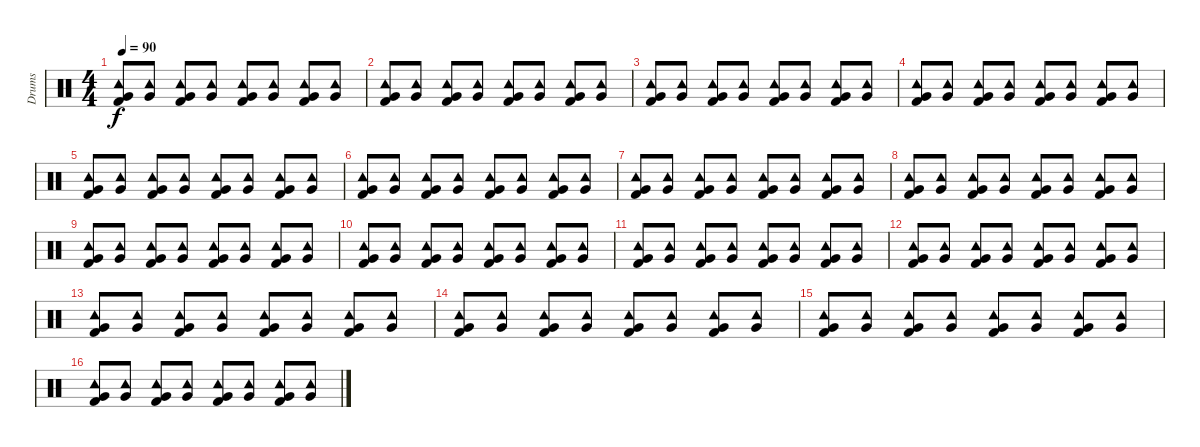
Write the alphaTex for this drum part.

\track ("Drums" "Drums") {instrument percussion}
\staff {score}
\articulation defaults
\ts (4 4)
\tempo 90
\clef neutral
\ks c
("Tambourine (hit)" "Kick (hit) 2" "Very Low Tom (hit)").8{dy f} ("Tambourine (hit)" "Very Low Tom (hit)").8 ("Tambourine (hit)" "Kick (hit) 2" "Very Low Tom (hit)").8 ("Tambourine (hit)" "Very Low Tom (hit)").8 ("Tambourine (hit)" "Kick (hit) 2" "Very Low Tom (hit)").8 ("Tambourine (hit)" "Very Low Tom (hit)").8 ("Tambourine (hit)" "Kick (hit) 2" "Very Low Tom (hit)").8 ("Tambourine (hit)" "Very Low Tom (hit)").8 |
("Tambourine (hit)" "Kick (hit) 2" "Very Low Tom (hit)").8 ("Tambourine (hit)" "Very Low Tom (hit)").8 ("Tambourine (hit)" "Kick (hit) 2" "Very Low Tom (hit)").8 ("Tambourine (hit)" "Very Low Tom (hit)").8 ("Tambourine (hit)" "Kick (hit) 2" "Very Low Tom (hit)").8 ("Tambourine (hit)" "Very Low Tom (hit)").8 ("Tambourine (hit)" "Kick (hit) 2" "Very Low Tom (hit)").8 ("Tambourine (hit)" "Very Low Tom (hit)").8 |
("Tambourine (hit)" "Kick (hit) 2" "Very Low Tom (hit)").8 ("Tambourine (hit)" "Very Low Tom (hit)").8 ("Tambourine (hit)" "Kick (hit) 2" "Very Low Tom (hit)").8 ("Tambourine (hit)" "Very Low Tom (hit)").8 ("Tambourine (hit)" "Kick (hit) 2" "Very Low Tom (hit)").8 ("Tambourine (hit)" "Very Low Tom (hit)").8 ("Tambourine (hit)" "Kick (hit) 2" "Very Low Tom (hit)").8 ("Tambourine (hit)" "Very Low Tom (hit)").8 |
("Tambourine (hit)" "Kick (hit) 2" "Very Low Tom (hit)").8 ("Tambourine (hit)" "Very Low Tom (hit)").8 ("Tambourine (hit)" "Kick (hit) 2" "Very Low Tom (hit)").8 ("Tambourine (hit)" "Very Low Tom (hit)").8 ("Tambourine (hit)" "Kick (hit) 2" "Very Low Tom (hit)").8 ("Tambourine (hit)" "Very Low Tom (hit)").8 ("Tambourine (hit)" "Kick (hit) 2" "Very Low Tom (hit)").8 ("Tambourine (hit)" "Very Low Tom (hit)").8 |
("Tambourine (hit)" "Kick (hit) 2" "Very Low Tom (hit)").8 ("Tambourine (hit)" "Very Low Tom (hit)").8 ("Tambourine (hit)" "Kick (hit) 2" "Very Low Tom (hit)").8 ("Tambourine (hit)" "Very Low Tom (hit)").8 ("Tambourine (hit)" "Kick (hit) 2" "Very Low Tom (hit)").8 ("Tambourine (hit)" "Very Low Tom (hit)").8 ("Tambourine (hit)" "Kick (hit) 2" "Very Low Tom (hit)").8 ("Tambourine (hit)" "Very Low Tom (hit)").8 |
("Tambourine (hit)" "Kick (hit) 2" "Very Low Tom (hit)").8 ("Tambourine (hit)" "Very Low Tom (hit)").8 ("Tambourine (hit)" "Kick (hit) 2" "Very Low Tom (hit)").8 ("Tambourine (hit)" "Very Low Tom (hit)").8 ("Tambourine (hit)" "Kick (hit) 2" "Very Low Tom (hit)").8 ("Tambourine (hit)" "Very Low Tom (hit)").8 ("Tambourine (hit)" "Kick (hit) 2" "Very Low Tom (hit)").8 ("Tambourine (hit)" "Very Low Tom (hit)").8 |
("Tambourine (hit)" "Kick (hit) 2" "Very Low Tom (hit)").8 ("Tambourine (hit)" "Very Low Tom (hit)").8 ("Tambourine (hit)" "Kick (hit) 2" "Very Low Tom (hit)").8 ("Tambourine (hit)" "Very Low Tom (hit)").8 ("Tambourine (hit)" "Kick (hit) 2" "Very Low Tom (hit)").8 ("Tambourine (hit)" "Very Low Tom (hit)").8 ("Tambourine (hit)" "Kick (hit) 2" "Very Low Tom (hit)").8 ("Tambourine (hit)" "Very Low Tom (hit)").8 |
("Tambourine (hit)" "Kick (hit) 2" "Very Low Tom (hit)").8 ("Tambourine (hit)" "Very Low Tom (hit)").8 ("Tambourine (hit)" "Kick (hit) 2" "Very Low Tom (hit)").8 ("Tambourine (hit)" "Very Low Tom (hit)").8 ("Tambourine (hit)" "Kick (hit) 2" "Very Low Tom (hit)").8 ("Tambourine (hit)" "Very Low Tom (hit)").8 ("Tambourine (hit)" "Kick (hit) 2" "Very Low Tom (hit)").8 ("Tambourine (hit)" "Very Low Tom (hit)").8 |
("Tambourine (hit)" "Kick (hit) 2" "Very Low Tom (hit)").8 ("Tambourine (hit)" "Very Low Tom (hit)").8 ("Tambourine (hit)" "Kick (hit) 2" "Very Low Tom (hit)").8 ("Tambourine (hit)" "Very Low Tom (hit)").8 ("Tambourine (hit)" "Kick (hit) 2" "Very Low Tom (hit)").8 ("Tambourine (hit)" "Very Low Tom (hit)").8 ("Tambourine (hit)" "Kick (hit) 2" "Very Low Tom (hit)").8 ("Tambourine (hit)" "Very Low Tom (hit)").8 |
("Tambourine (hit)" "Kick (hit) 2" "Very Low Tom (hit)").8 ("Tambourine (hit)" "Very Low Tom (hit)").8 ("Tambourine (hit)" "Kick (hit) 2" "Very Low Tom (hit)").8 ("Tambourine (hit)" "Very Low Tom (hit)").8 ("Tambourine (hit)" "Kick (hit) 2" "Very Low Tom (hit)").8 ("Tambourine (hit)" "Very Low Tom (hit)").8 ("Tambourine (hit)" "Kick (hit) 2" "Very Low Tom (hit)").8 ("Tambourine (hit)" "Very Low Tom (hit)").8 |
("Tambourine (hit)" "Kick (hit) 2" "Very Low Tom (hit)").8 ("Tambourine (hit)" "Very Low Tom (hit)").8 ("Tambourine (hit)" "Kick (hit) 2" "Very Low Tom (hit)").8 ("Tambourine (hit)" "Very Low Tom (hit)").8 ("Tambourine (hit)" "Kick (hit) 2" "Very Low Tom (hit)").8 ("Tambourine (hit)" "Very Low Tom (hit)").8 ("Tambourine (hit)" "Kick (hit) 2" "Very Low Tom (hit)").8 ("Tambourine (hit)" "Very Low Tom (hit)").8 |
("Tambourine (hit)" "Kick (hit) 2" "Very Low Tom (hit)").8 ("Tambourine (hit)" "Very Low Tom (hit)").8 ("Tambourine (hit)" "Kick (hit) 2" "Very Low Tom (hit)").8 ("Tambourine (hit)" "Very Low Tom (hit)").8 ("Tambourine (hit)" "Kick (hit) 2" "Very Low Tom (hit)").8 ("Tambourine (hit)" "Very Low Tom (hit)").8 ("Tambourine (hit)" "Kick (hit) 2" "Very Low Tom (hit)").8 ("Tambourine (hit)" "Very Low Tom (hit)").8 |
("Tambourine (hit)" "Kick (hit) 2" "Very Low Tom (hit)").8 ("Tambourine (hit)" "Very Low Tom (hit)").8 ("Tambourine (hit)" "Kick (hit) 2" "Very Low Tom (hit)").8 ("Tambourine (hit)" "Very Low Tom (hit)").8 ("Tambourine (hit)" "Kick (hit) 2" "Very Low Tom (hit)").8 ("Tambourine (hit)" "Very Low Tom (hit)").8 ("Tambourine (hit)" "Kick (hit) 2" "Very Low Tom (hit)").8 ("Tambourine (hit)" "Very Low Tom (hit)").8 |
("Tambourine (hit)" "Kick (hit) 2" "Very Low Tom (hit)").8 ("Tambourine (hit)" "Very Low Tom (hit)").8 ("Tambourine (hit)" "Kick (hit) 2" "Very Low Tom (hit)").8 ("Tambourine (hit)" "Very Low Tom (hit)").8 ("Tambourine (hit)" "Kick (hit) 2" "Very Low Tom (hit)").8 ("Tambourine (hit)" "Very Low Tom (hit)").8 ("Tambourine (hit)" "Kick (hit) 2" "Very Low Tom (hit)").8 ("Tambourine (hit)" "Very Low Tom (hit)").8 |
("Tambourine (hit)" "Kick (hit) 2" "Very Low Tom (hit)").8 ("Tambourine (hit)" "Very Low Tom (hit)").8 ("Tambourine (hit)" "Kick (hit) 2" "Very Low Tom (hit)").8 ("Tambourine (hit)" "Very Low Tom (hit)").8 ("Tambourine (hit)" "Kick (hit) 2" "Very Low Tom (hit)").8 ("Tambourine (hit)" "Very Low Tom (hit)").8 ("Tambourine (hit)" "Kick (hit) 2" "Very Low Tom (hit)").8 ("Tambourine (hit)" "Very Low Tom (hit)").8 |
("Tambourine (hit)" "Kick (hit) 2" "Very Low Tom (hit)").8 ("Tambourine (hit)" "Very Low Tom (hit)").8 ("Tambourine (hit)" "Kick (hit) 2" "Very Low Tom (hit)").8 ("Tambourine (hit)" "Very Low Tom (hit)").8 ("Tambourine (hit)" "Kick (hit) 2" "Very Low Tom (hit)").8 ("Tambourine (hit)" "Very Low Tom (hit)").8 ("Tambourine (hit)" "Kick (hit) 2" "Very Low Tom (hit)").8 ("Tambourine (hit)" "Very Low Tom (hit)").8
